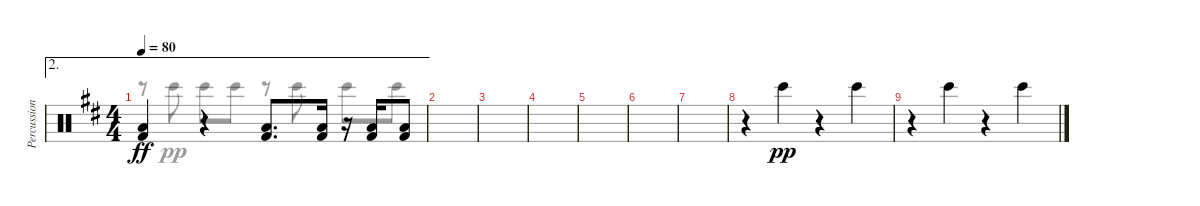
\track ("Percussion" "Percussion") {instrument percussion}
\staff {score}
\articulation defaults
\voice
\ae 2
\ts (4 4)
\tempo 80
\clef neutral
\ks d
("Kick (hit) 2" "Low Floor Tom (hit)").4{dy ff} r.4 ("Kick (hit) 2" "Low Floor Tom (hit)").8{d} ("Kick (hit) 2" "Low Floor Tom (hit)").16 r.16 ("Kick (hit) 2" "Low Floor Tom (hit)").16 ("Kick (hit) 2" "Low Floor Tom (hit)").8 |
|
|
|
|
|
|
r.4 "Bongo High (hit)".4{dy pp} r.4 "Bongo High (hit)".4 |
r.4 "Bongo High (hit)".4 r.4 "Bongo High (hit)".4 |
|
|
\voice
\clef neutral
\ottava regular
\simile none
\ks d
r.8{dy pp} "Bongo High (hit)".8 "Bongo High (hit)".8 "Bongo High (hit)".8 r.8 "Bongo High (hit)".8 "Bongo High (hit)".8 "Bongo High (hit)".8 |
|
|
|
|
|
|
|
|
|
|
